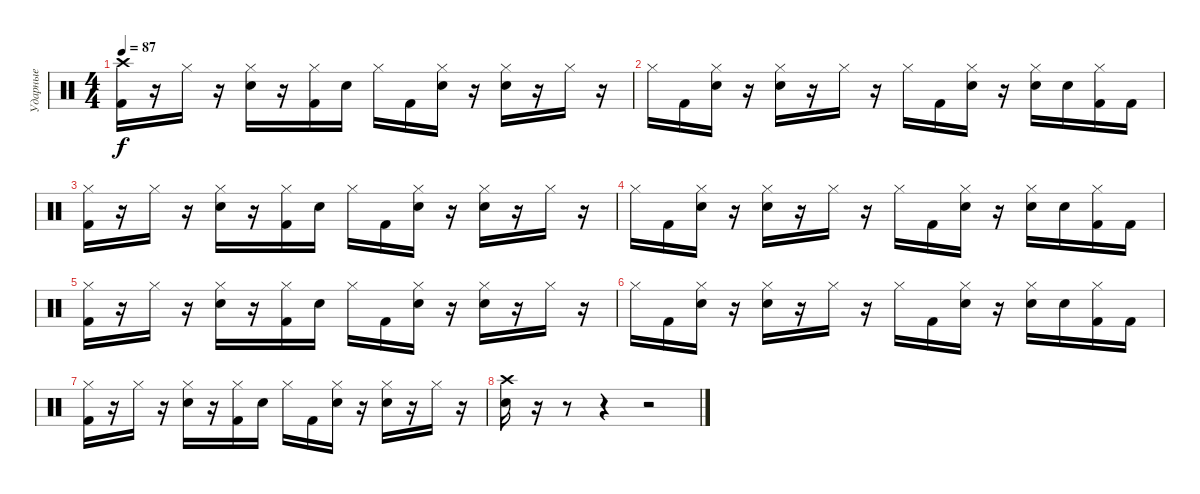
\track ("Ударные" "Ударные") {instrument percussion}
\staff {score}
\articulation defaults
\ts (4 4)
\tempo 87
\clef neutral
\ks c
("Crash high (hit)" "Kick (hit) 2").16{dy f} r.16 "Hi-Hat (closed)".16 r.16 ("Hi-Hat (closed)" "Electric Snare (hit)").16 r.16 ("Hi-Hat (closed)" "Kick (hit) 2").16 "Electric Snare (hit)".16 "Hi-Hat (closed)".16 "Kick (hit) 2".16 ("Hi-Hat (closed)" "Electric Snare (hit)").16 r.16 ("Hi-Hat (closed)" "Electric Snare (hit)").16 r.16 "Hi-Hat (closed)".16 r.16 |
"Hi-Hat (closed)".16 "Kick (hit) 2".16 ("Hi-Hat (closed)" "Electric Snare (hit)").16 r.16 ("Hi-Hat (closed)" "Electric Snare (hit)").16 r.16 "Hi-Hat (closed)".16 r.16 "Hi-Hat (closed)".16 "Kick (hit) 2".16 ("Hi-Hat (closed)" "Electric Snare (hit)").16 r.16 ("Hi-Hat (closed)" "Electric Snare (hit)").16 "Electric Snare (hit)".16 ("Hi-Hat (closed)" "Kick (hit) 2").16 "Kick (hit) 2".16 |
("Hi-Hat (closed)" "Kick (hit) 2").16 r.16 "Hi-Hat (closed)".16 r.16 ("Hi-Hat (closed)" "Electric Snare (hit)").16 r.16 ("Hi-Hat (closed)" "Kick (hit) 2").16 "Electric Snare (hit)".16 "Hi-Hat (closed)".16 "Kick (hit) 2".16 ("Hi-Hat (closed)" "Electric Snare (hit)").16 r.16 ("Hi-Hat (closed)" "Electric Snare (hit)").16 r.16 "Hi-Hat (closed)".16 r.16 |
"Hi-Hat (closed)".16 "Kick (hit) 2".16 ("Hi-Hat (closed)" "Electric Snare (hit)").16 r.16 ("Hi-Hat (closed)" "Electric Snare (hit)").16 r.16 "Hi-Hat (closed)".16 r.16 "Hi-Hat (closed)".16 "Kick (hit) 2".16 ("Hi-Hat (closed)" "Electric Snare (hit)").16 r.16 ("Hi-Hat (closed)" "Electric Snare (hit)").16 "Electric Snare (hit)".16 ("Hi-Hat (closed)" "Kick (hit) 2").16 "Kick (hit) 2".16 |
("Hi-Hat (closed)" "Kick (hit) 2").16 r.16 "Hi-Hat (closed)".16 r.16 ("Hi-Hat (closed)" "Electric Snare (hit)").16 r.16 ("Hi-Hat (closed)" "Kick (hit) 2").16 "Electric Snare (hit)".16 "Hi-Hat (closed)".16 "Kick (hit) 2".16 ("Hi-Hat (closed)" "Electric Snare (hit)").16 r.16 ("Hi-Hat (closed)" "Electric Snare (hit)").16 r.16 "Hi-Hat (closed)".16 r.16 |
"Hi-Hat (closed)".16 "Kick (hit) 2".16 ("Hi-Hat (closed)" "Electric Snare (hit)").16 r.16 ("Hi-Hat (closed)" "Electric Snare (hit)").16 r.16 "Hi-Hat (closed)".16 r.16 "Hi-Hat (closed)".16 "Kick (hit) 2".16 ("Hi-Hat (closed)" "Electric Snare (hit)").16 r.16 ("Hi-Hat (closed)" "Electric Snare (hit)").16 "Electric Snare (hit)".16 ("Hi-Hat (closed)" "Kick (hit) 2").16 "Kick (hit) 2".16 |
("Hi-Hat (closed)" "Kick (hit) 2").16 r.16 "Hi-Hat (closed)".16 r.16 ("Hi-Hat (closed)" "Electric Snare (hit)").16 r.16 ("Hi-Hat (closed)" "Kick (hit) 2").16 "Electric Snare (hit)".16 "Hi-Hat (closed)".16 "Kick (hit) 2".16 ("Hi-Hat (closed)" "Electric Snare (hit)").16 r.16 ("Hi-Hat (closed)" "Electric Snare (hit)").16 r.16 "Hi-Hat (closed)".16 r.16 |
("Crash high (hit)" "Electric Snare (hit)").16 r.16 r.8 r.4 r.2
